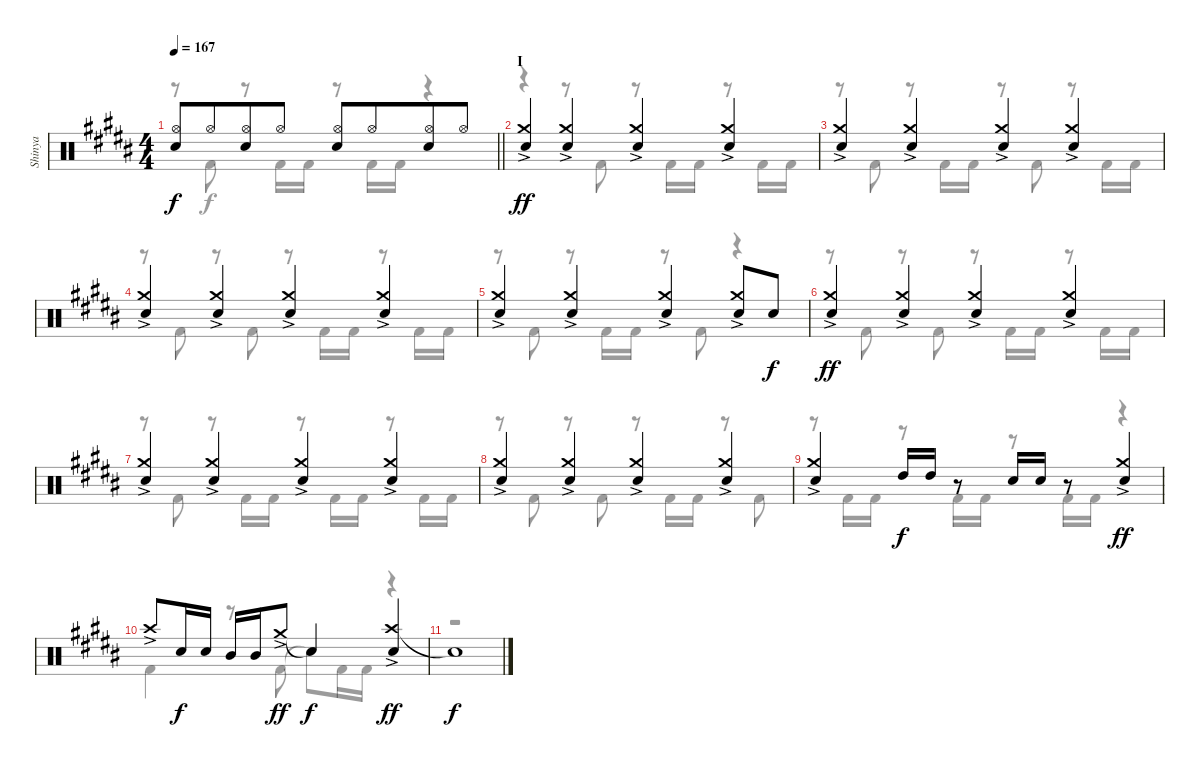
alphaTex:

\track ("Shinya" "Shinya") {instrument percussion}
\staff {score}
\articulation defaults
\voice
\ts (4 4)
\tempo 167
\clef neutral
\barLineRight lightlight
\ks g#minor
("Hi-Hat (open)" "Snare (hit) 2").8{dy f} "Hi-Hat (open)".8{beam merge} ("Hi-Hat (open)" "Snare (hit) 2").8 "Hi-Hat (open)".8 ("Hi-Hat (open)" "Snare (hit) 2").8 "Hi-Hat (open)".8{beam merge} ("Hi-Hat (open)" "Snare (hit) 2").8 "Hi-Hat (open)".8 |
\section ("" "I")
("Crash medium (hit)"{ac} "Snare (hit) 2").4{dy ff} ("Crash medium (hit)"{ac} "Snare (hit) 2").4 ("Crash medium (hit)"{ac} "Snare (hit) 2").4 ("Crash medium (hit)"{ac} "Snare (hit) 2").4 |
("Crash medium (hit)"{ac} "Snare (hit) 2").4 ("Crash medium (hit)"{ac} "Snare (hit) 2").4 ("Crash medium (hit)"{ac} "Snare (hit) 2").4 ("Crash medium (hit)"{ac} "Snare (hit) 2").4 |
("Crash medium (hit)"{ac} "Snare (hit) 2").4 ("Crash medium (hit)"{ac} "Snare (hit) 2").4 ("Crash medium (hit)"{ac} "Snare (hit) 2").4 ("Crash medium (hit)"{ac} "Snare (hit) 2").4 |
("Crash medium (hit)"{ac} "Snare (hit) 2").4 ("Crash medium (hit)"{ac} "Snare (hit) 2").4 ("Crash medium (hit)"{ac} "Snare (hit) 2").4 ("Crash medium (hit)"{ac} "Snare (hit) 2").8 "Snare (hit) 2".8{dy f} |
("Crash medium (hit)"{ac} "Snare (hit) 2").4{dy ff} ("Crash medium (hit)"{ac} "Snare (hit) 2").4 ("Crash medium (hit)"{ac} "Snare (hit) 2").4 ("Crash medium (hit)"{ac} "Snare (hit) 2").4 |
("Crash medium (hit)"{ac} "Snare (hit) 2").4 ("Crash medium (hit)"{ac} "Snare (hit) 2").4 ("Crash medium (hit)"{ac} "Snare (hit) 2").4 ("Crash medium (hit)"{ac} "Snare (hit) 2").4 |
("Crash medium (hit)"{ac} "Snare (hit) 2").4 ("Crash medium (hit)"{ac} "Snare (hit) 2").4 ("Crash medium (hit)"{ac} "Snare (hit) 2").4 ("Crash medium (hit)"{ac} "Snare (hit) 2").4 |
("Crash medium (hit)"{ac} "Snare (hit) 2").4 "High Tom (hit)".16{dy f} "High Tom (hit)".16 r.8 "Snare (hit) 2".16 "Snare (hit) 2".16 r.8 ("Crash medium (hit)"{ac} "Snare (hit) 2").4{dy ff} |
"Crash high (hit)"{ac}.8 "Snare (hit) 2".16{dy f} "Snare (hit) 2".16 "Mid Tom (hit)".16 "Mid Tom (hit)".16 "Crash medium (hit)"{ac}.8{dy ff} "Snare (hit)"{t}.4{dy f} ("Crash high (hit)"{ac} "Snare (hit) 2").4{dy ff} |
"Snare (hit)"{t}.1{dy f}
\voice
\clef neutral
\ottava regular
\simile none
\barLineRight lightlight
\ks g#minor
r.8{dy f} "Kick (hit) 2".8 r.8 "Kick (hit) 2".16 "Kick (hit) 2".16 r.8 "Kick (hit) 2".16 "Kick (hit) 2".16 r.4 |
r.4 r.8 "Kick (hit) 2".8 r.8 "Kick (hit) 2".16 "Kick (hit) 2".16 r.8 "Kick (hit) 2".16 "Kick (hit) 2".16 |
r.8 "Kick (hit) 2".8 r.8 "Kick (hit) 2".16 "Kick (hit) 2".16 r.8 "Kick (hit) 2".8 r.8 "Kick (hit) 2".16 "Kick (hit) 2".16 |
r.8 "Kick (hit) 2".8 r.8 "Kick (hit) 2".8 r.8 "Kick (hit) 2".16 "Kick (hit) 2".16 r.8 "Kick (hit) 2".16 "Kick (hit) 2".16 |
r.8 "Kick (hit) 2".8 r.8 "Kick (hit) 2".16 "Kick (hit) 2".16 r.8 "Kick (hit) 2".8 r.4 |
r.8 "Kick (hit) 2".8 r.8 "Kick (hit) 2".8 r.8 "Kick (hit) 2".16 "Kick (hit) 2".16 r.8 "Kick (hit) 2".16 "Kick (hit) 2".16 |
r.8 "Kick (hit) 2".8 r.8 "Kick (hit) 2".16 "Kick (hit) 2".16 r.8 "Kick (hit) 2".16 "Kick (hit) 2".16 r.8 "Kick (hit) 2".16 "Kick (hit) 2".16 |
r.8 "Kick (hit) 2".8 r.8 "Kick (hit) 2".8 r.8 "Kick (hit) 2".16 "Kick (hit) 2".16 r.8 "Kick (hit) 2".8 |
r.8 "Kick (hit) 2".16 "Kick (hit) 2".16 r.8 "Kick (hit) 2".16 "Kick (hit) 2".16 r.8 "Kick (hit) 2".16 "Kick (hit) 2".16 r.4 |
"Kick (hit) 2".4 r.8 "Kick (hit) 2".8 "Snare (hit)"{t}.8 "Kick (hit) 2".16 "Kick (hit) 2".16 r.4 |
r.1
